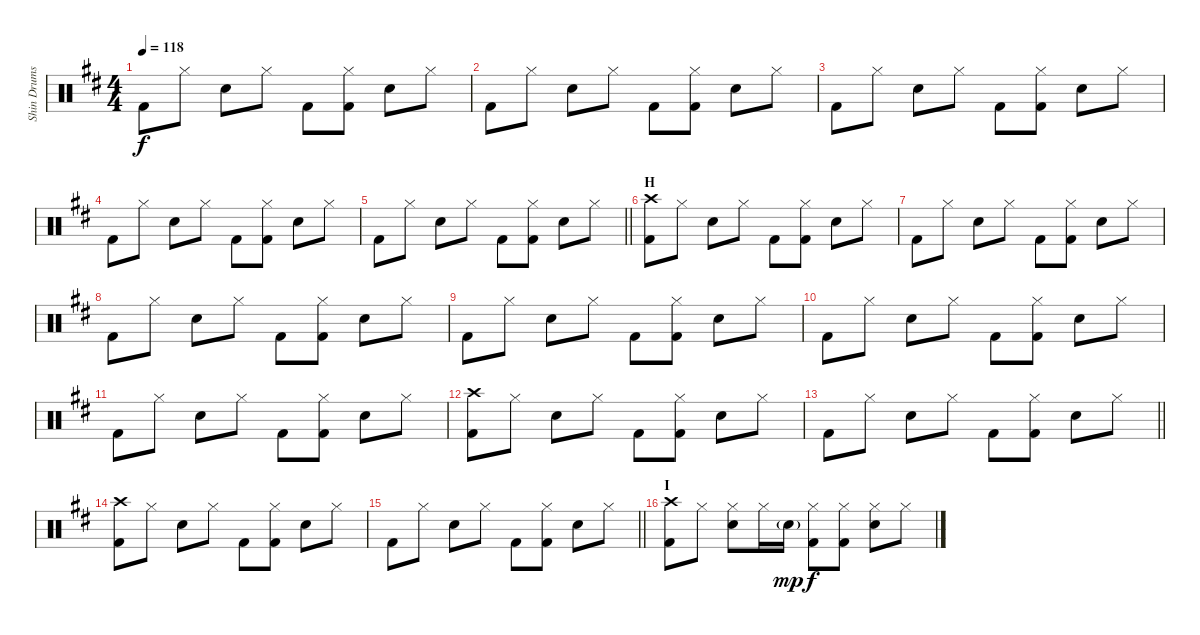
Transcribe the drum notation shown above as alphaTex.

\track ("Shin Drums" "Shin Drums") {instrument percussion}
\staff {score}
\articulation defaults
\ts (4 4)
\tempo 118
\clef neutral
\ks d "Kick (hit) 2".8{dy f} "Hi-Hat (closed)".8 "Snare (hit) 2".8 "Hi-Hat (closed)".8 "Kick (hit) 2".8
("Hi-Hat (closed)" "Kick (hit) 2").8 "Snare (hit) 2".8 "Hi-Hat (closed)".8 |
"Kick (hit) 2".8 "Hi-Hat (closed)".8 "Snare (hit) 2".8 "Hi-Hat (closed)".8 "Kick (hit) 2".8 ("Hi-Hat (closed)" "Kick (hit) 2").8 "Snare (hit) 2".8 "Hi-Hat (closed)".8 |
"Kick (hit) 2".8 "Hi-Hat (closed)".8 "Snare (hit) 2".8 "Hi-Hat (closed)".8 "Kick (hit) 2".8 ("Hi-Hat (closed)" "Kick (hit) 2").8 "Snare (hit) 2".8 "Hi-Hat (closed)".8 |
"Kick (hit) 2".8 "Hi-Hat (closed)".8 "Snare (hit) 2".8 "Hi-Hat (closed)".8 "Kick (hit) 2".8 ("Hi-Hat (closed)" "Kick (hit) 2").8 "Snare (hit) 2".8 "Hi-Hat (closed)".8 |
\barLineRight lightlight "Kick (hit) 2".8 "Hi-Hat (closed)".8 "Snare (hit) 2".8 "Hi-Hat (closed)".8 "Kick (hit) 2".8
("Hi-Hat (closed)" "Kick (hit) 2").8 "Snare (hit) 2".8 "Hi-Hat (closed)".8 |
\section ("" "H")
("Crash high (hit)" "Kick (hit) 2").8 "Hi-Hat (closed)".8 "Snare (hit) 2".8 "Hi-Hat (closed)".8 "Kick (hit) 2".8 ("Hi-Hat (closed)" "Kick (hit) 2").8 "Snare (hit) 2".8 "Hi-Hat (closed)".8 |
"Kick (hit) 2".8 "Hi-Hat (closed)".8 "Snare (hit) 2".8 "Hi-Hat (closed)".8 "Kick (hit) 2".8 ("Hi-Hat (closed)" "Kick (hit) 2").8 "Snare (hit) 2".8 "Hi-Hat (closed)".8 |
"Kick (hit) 2".8 "Hi-Hat (closed)".8 "Snare (hit) 2".8 "Hi-Hat (closed)".8 "Kick (hit) 2".8 ("Hi-Hat (closed)" "Kick (hit) 2").8 "Snare (hit) 2".8 "Hi-Hat (closed)".8 |
"Kick (hit) 2".8 "Hi-Hat (closed)".8 "Snare (hit) 2".8 "Hi-Hat (closed)".8 "Kick (hit) 2".8 ("Hi-Hat (closed)" "Kick (hit) 2").8 "Snare (hit) 2".8 "Hi-Hat (closed)".8 |
"Kick (hit) 2".8 "Hi-Hat (closed)".8 "Snare (hit) 2".8 "Hi-Hat (closed)".8 "Kick (hit) 2".8 ("Hi-Hat (closed)" "Kick (hit) 2").8 "Snare (hit) 2".8 "Hi-Hat (closed)".8 |
"Kick (hit) 2".8 "Hi-Hat (closed)".8 "Snare (hit) 2".8 "Hi-Hat (closed)".8 "Kick (hit) 2".8 ("Hi-Hat (closed)" "Kick (hit) 2").8 "Snare (hit) 2".8 "Hi-Hat (closed)".8 |
("Crash high (hit)" "Kick (hit) 2").8 "Hi-Hat (closed)".8 "Snare (hit) 2".8 "Hi-Hat (closed)".8 "Kick (hit) 2".8 ("Hi-Hat (closed)" "Kick (hit) 2").8 "Snare (hit) 2".8 "Hi-Hat (closed)".8 |
\barLineRight lightlight "Kick (hit) 2".8 "Hi-Hat (closed)".8 "Snare (hit) 2".8 "Hi-Hat (closed)".8 "Kick (hit) 2".8
("Hi-Hat (closed)" "Kick (hit) 2").8 "Snare (hit) 2".8 "Hi-Hat (closed)".8 |
("Crash high (hit)" "Kick (hit) 2").8 "Hi-Hat (closed)".8 "Snare (hit) 2".8 "Hi-Hat (closed)".8 "Kick (hit) 2".8 ("Hi-Hat (closed)" "Kick (hit) 2").8 "Snare (hit) 2".8 "Hi-Hat (closed)".8 |
\barLineRight lightlight "Kick (hit) 2".8 "Hi-Hat (closed)".8 "Snare (hit) 2".8 "Hi-Hat (closed)".8 "Kick (hit) 2".8
("Hi-Hat (closed)" "Kick (hit) 2").8 "Snare (hit) 2".8 "Hi-Hat (closed)".8 |
\section ("" "I")
("Crash high (hit)" "Kick (hit) 2").8 "Hi-Hat (closed)".8 ("Hi-Hat (closed)" "Snare (hit) 2").8 "Hi-Hat (closed)".16 "Snare (hit) 2"{g}.16{dy mp} ("Hi-Hat (closed)" "Kick (hit) 2").8{dy f} ("Hi-Hat (closed)" "Kick (hit) 2").8 ("Hi-Hat (closed)" "Snare (hit) 2").8 "Hi-Hat (closed)".8
